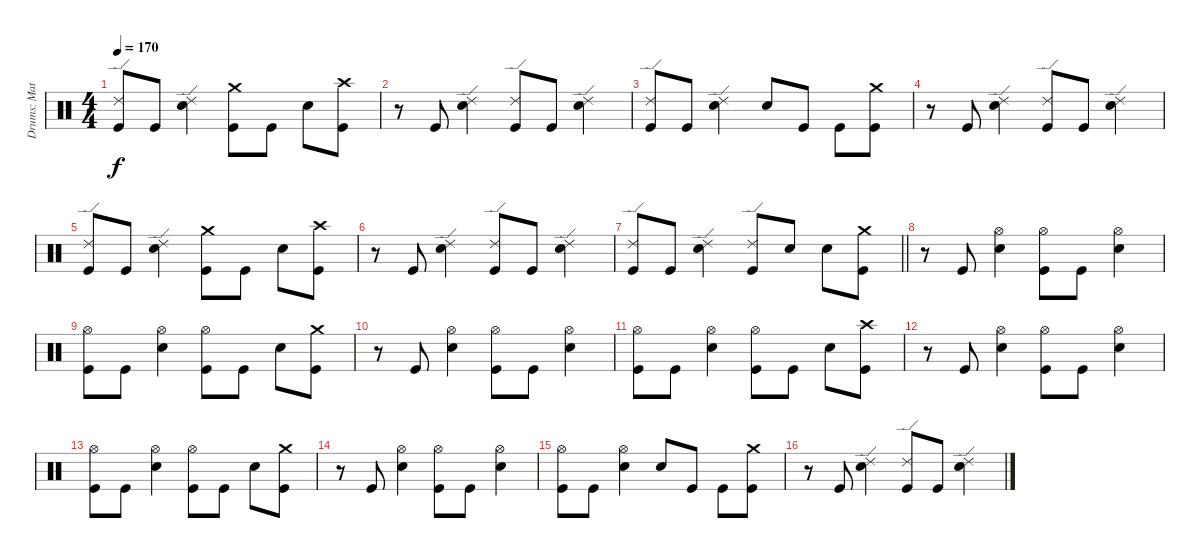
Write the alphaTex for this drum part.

\track ("Drums: Matt" "Drums: Mat") {solo instrument percussion}
\staff {score}
\articulation defaults
\ts (4 4)
\tempo 170
\clef neutral
\ks c
("Kick (hit)" "Ride (edge) 2").8{dy f} "Kick (hit)".8 ("Snare (hit) 2" "Ride (edge) 2").4 ("Crash medium (hit)" "Kick (hit)").8 "Kick (hit)".8 "Snare (hit) 2".8 ("Kick (hit)" "Crash high (hit)").8 |
r.8 "Kick (hit)".8 ("Snare (hit) 2" "Ride (edge) 2").4 ("Kick (hit)" "Ride (edge) 2").8 "Kick (hit)".8 ("Ride (edge) 2" "Snare (hit) 2").4 |
("Kick (hit)" "Ride (edge) 2").8 "Kick (hit)".8 ("Ride (edge) 2" "Snare (hit) 2").4 "Snare (hit) 2".8 "Kick (hit)".8 "Kick (hit)".8 ("Crash medium (hit)" "Kick (hit)").8 |
r.8 "Kick (hit)".8 ("Snare (hit) 2" "Ride (edge) 2").4 ("Kick (hit)" "Ride (edge) 2").8 "Kick (hit)".8 ("Ride (edge) 2" "Snare (hit) 2").4 |
("Ride (edge) 2" "Kick (hit)").8 "Kick (hit)".8 ("Ride (edge) 2" "Snare (hit) 2").4 ("Kick (hit)" "Crash medium (hit)").8 "Kick (hit)".8 "Snare (hit) 2".8 ("Kick (hit)" "Crash high (hit)").8 |
r.8 "Kick (hit)".8 ("Snare (hit) 2" "Ride (edge) 2").4 ("Ride (edge) 2" "Kick (hit)").8 "Kick (hit)".8 ("Ride (edge) 2" "Snare (hit) 2").4 |
\barLineRight lightlight
("Kick (hit)" "Ride (edge) 2").8 "Kick (hit)".8 ("Ride (edge) 2" "Snare (hit) 2").4 ("Ride (edge) 2" "Kick (hit)").8 "Snare (hit) 2".8 "Snare (hit) 2".8 ("Kick (hit)" "Crash medium (hit)").8 |
r.8 "Kick (hit)".8 ("Hi-Hat (open)" "Snare (hit) 2").4 ("Kick (hit)" "Hi-Hat (open)").8 "Kick (hit)".8 ("Snare (hit) 2" "Hi-Hat (open)").4 |
("Kick (hit)" "Hi-Hat (open)").8 "Kick (hit)".8 ("Hi-Hat (open)" "Snare (hit) 2").4 ("Hi-Hat (open)" "Kick (hit)").8 "Kick (hit)".8 "Snare (hit) 2".8 ("Kick (hit)" "Crash medium (hit)").8 |
r.8 "Kick (hit)".8 ("Snare (hit) 2" "Hi-Hat (open)").4 ("Hi-Hat (open)" "Kick (hit)").8 "Kick (hit)".8 ("Snare (hit) 2" "Hi-Hat (open)").4 |
("Hi-Hat (open)" "Kick (hit)").8 "Kick (hit)".8 ("Hi-Hat (open)" "Snare (hit) 2").4 ("Kick (hit)" "Hi-Hat (open)").8 "Kick (hit)".8 "Snare (hit) 2".8 ("Kick (hit)" "Crash high (hit)").8 |
r.8 "Kick (hit)".8 ("Snare (hit) 2" "Hi-Hat (open)").4 ("Kick (hit)" "Hi-Hat (open)").8 "Kick (hit)".8 ("Hi-Hat (open)" "Snare (hit) 2").4 |
("Kick (hit)" "Hi-Hat (open)").8 "Kick (hit)".8 ("Snare (hit) 2" "Hi-Hat (open)").4 ("Kick (hit)" "Hi-Hat (open)").8 "Kick (hit)".8 "Snare (hit) 2".8 ("Kick (hit)" "Crash medium (hit)").8 |
r.8 "Kick (hit)".8 ("Hi-Hat (open)" "Snare (hit) 2").4 ("Kick (hit)" "Hi-Hat (open)").8 "Kick (hit)".8 ("Hi-Hat (open)" "Snare (hit) 2").4 |
("Hi-Hat (open)" "Kick (hit)").8 "Kick (hit)".8 ("Hi-Hat (open)" "Snare (hit) 2").4 "Snare (hit) 2".8 "Kick (hit)".8 "Kick (hit)".8 ("Crash medium (hit)" "Kick (hit)").8 |
r.8 "Kick (hit)".8 ("Snare (hit) 2" "Ride (edge) 2").4 ("Kick (hit)" "Ride (edge) 2").8 "Kick (hit)".8 ("Ride (edge) 2" "Snare (hit) 2").4
